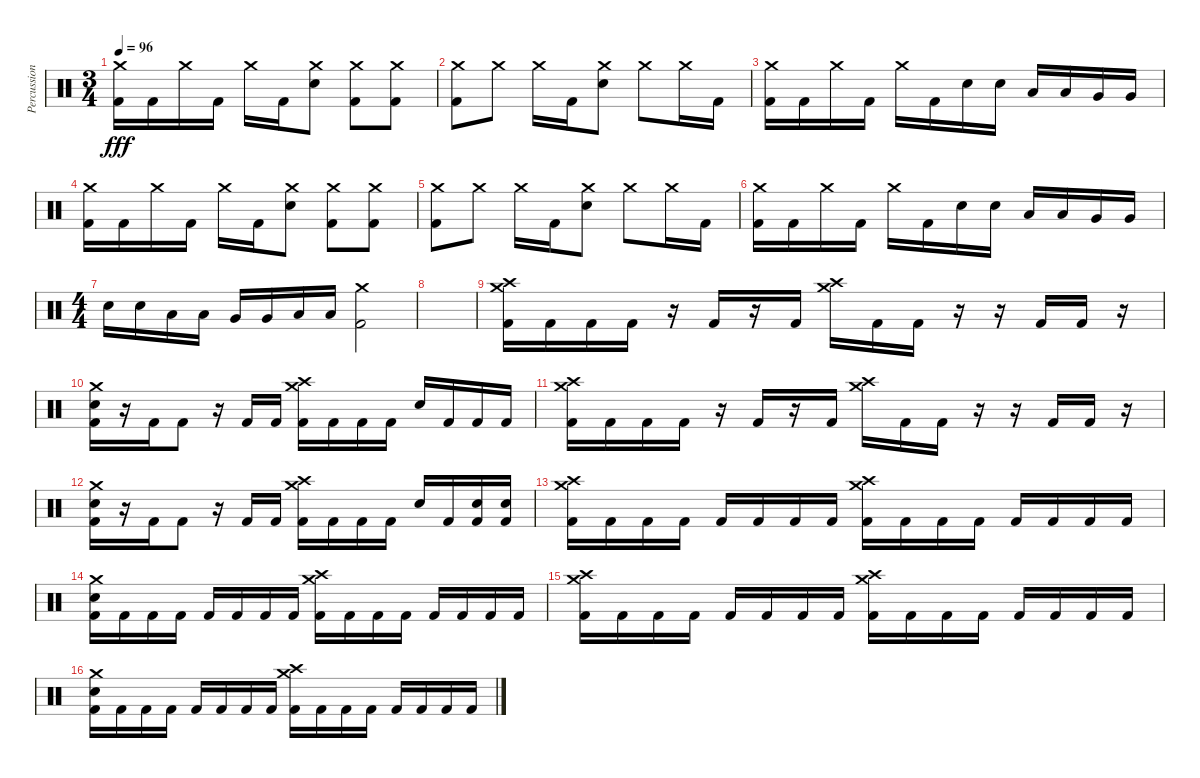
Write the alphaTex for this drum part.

\track ("Percussion" "Percussion") {instrument percussion}
\staff {score}
\articulation defaults
\ts (3 4)
\tempo 96
\clef neutral
\ks c
("Crash medium (hit)" "Kick (hit) 2").16{dy fff} "Kick (hit) 2".16 "Crash medium (hit)".16 "Kick (hit) 2".16 "Crash medium (hit)".16 "Kick (hit) 2".16 ("Crash medium (hit)" "Electric Snare (hit)").8 ("Crash medium (hit)" "Kick (hit) 2").8 ("Crash medium (hit)" "Kick (hit) 2").8 |
("Crash medium (hit)" "Kick (hit) 2").8 "Crash medium (hit)".8 "Crash medium (hit)".16 "Kick (hit) 2".16 ("Crash medium (hit)" "Electric Snare (hit)").8 "Crash medium (hit)".8 "Crash medium (hit)".16 "Kick (hit) 2".16 |
("Crash medium (hit)" "Kick (hit) 2").16 "Kick (hit) 2".16 "Crash medium (hit)".16 "Kick (hit) 2".16 "Crash medium (hit)".16 "Kick (hit) 2".16 "Electric Snare (hit)".16 "Electric Snare (hit)".16 "Low Tom (hit)".16 "Low Tom (hit)".16 "Very Low Tom (hit)".16 "Very Low Tom (hit)".16 |
("Crash medium (hit)" "Kick (hit) 2").16 "Kick (hit) 2".16 "Crash medium (hit)".16 "Kick (hit) 2".16 "Crash medium (hit)".16 "Kick (hit) 2".16 ("Crash medium (hit)" "Electric Snare (hit)").8 ("Crash medium (hit)" "Kick (hit) 2").8 ("Crash medium (hit)" "Kick (hit) 2").8 |
("Crash medium (hit)" "Kick (hit) 2").8 "Crash medium (hit)".8 "Crash medium (hit)".16 "Kick (hit) 2".16 ("Crash medium (hit)" "Electric Snare (hit)").8 "Crash medium (hit)".8 "Crash medium (hit)".16 "Kick (hit) 2".16 |
("Crash medium (hit)" "Kick (hit) 2").16 "Kick (hit) 2".16 "Crash medium (hit)".16 "Kick (hit) 2".16 "Crash medium (hit)".16 "Kick (hit) 2".16 "Electric Snare (hit)".16 "Electric Snare (hit)".16 "Low Tom (hit)".16 "Low Tom (hit)".16 "Very Low Tom (hit)".16 "Very Low Tom (hit)".16 |
\ts (4 4)
"Electric Snare (hit)".16 "Electric Snare (hit)".16 "Low Tom (hit)".16 "Low Tom (hit)".16 "Very Low Tom (hit)".16 "Very Low Tom (hit)".16 "Low Floor Tom (hit)".16 "Low Floor Tom (hit)".16 ("Crash medium (hit)" "Kick (hit) 2").2 |
|
("Crash high (hit)" "Crash medium (hit)" "Kick (hit) 2").16 "Kick (hit) 2".16 "Kick (hit) 2".16 "Kick (hit) 2".16 r.16 "Kick (hit) 2".16 r.16 "Kick (hit) 2".16 ("Crash high (hit)" "Crash medium (hit)").16 "Kick (hit) 2".16 "Kick (hit) 2".16 r.16 r.16 "Kick (hit) 2".16 "Kick (hit) 2".16 r.16 |
("Crash medium (hit)" "Electric Snare (hit)" "Kick (hit) 2").16 r.16 "Kick (hit) 2".16 "Kick (hit) 2".8 r.16 "Kick (hit) 2".16 "Kick (hit) 2".16 ("Crash high (hit)" "Crash medium (hit)" "Kick (hit) 2").16 "Kick (hit) 2".16 "Kick (hit) 2".16 "Kick (hit) 2".16 "Electric Snare (hit)".16 "Kick (hit) 2".16 "Kick (hit) 2".16 "Kick (hit) 2".16 |
("Crash high (hit)" "Crash medium (hit)" "Kick (hit) 2").16 "Kick (hit) 2".16 "Kick (hit) 2".16 "Kick (hit) 2".16 r.16 "Kick (hit) 2".16 r.16 "Kick (hit) 2".16 ("Crash high (hit)" "Crash medium (hit)").16 "Kick (hit) 2".16 "Kick (hit) 2".16 r.16 r.16 "Kick (hit) 2".16 "Kick (hit) 2".16 r.16 |
("Crash medium (hit)" "Electric Snare (hit)" "Kick (hit) 2").16 r.16 "Kick (hit) 2".16 "Kick (hit) 2".8 r.16 "Kick (hit) 2".16 "Kick (hit) 2".16 ("Crash high (hit)" "Crash medium (hit)" "Kick (hit) 2").16 "Kick (hit) 2".16 "Kick (hit) 2".16 "Kick (hit) 2".16 "Electric Snare (hit)".16 "Kick (hit) 2".16 ("Electric Snare (hit)" "Kick (hit) 2").16 ("Electric Snare (hit)" "Kick (hit) 2").16 |
("Crash high (hit)" "Crash medium (hit)" "Kick (hit) 2").16 "Kick (hit) 2".16 "Kick (hit) 2".16 "Kick (hit) 2".16 "Kick (hit) 2".16 "Kick (hit) 2".16 "Kick (hit) 2".16 "Kick (hit) 2".16 ("Crash high (hit)" "Crash medium (hit)" "Kick (hit) 2").16 "Kick (hit) 2".16 "Kick (hit) 2".16 "Kick (hit) 2".16 "Kick (hit) 2".16 "Kick (hit) 2".16 "Kick (hit) 2".16 "Kick (hit) 2".16 |
("Crash medium (hit)" "Electric Snare (hit)" "Kick (hit) 2").16 "Kick (hit) 2".16 "Kick (hit) 2".16 "Kick (hit) 2".16 "Kick (hit) 2".16 "Kick (hit) 2".16 "Kick (hit) 2".16 "Kick (hit) 2".16 ("Crash high (hit)" "Crash medium (hit)" "Kick (hit) 2").16 "Kick (hit) 2".16 "Kick (hit) 2".16 "Kick (hit) 2".16 "Kick (hit) 2".16 "Kick (hit) 2".16 "Kick (hit) 2".16 "Kick (hit) 2".16 |
("Crash high (hit)" "Crash medium (hit)" "Kick (hit) 2").16 "Kick (hit) 2".16 "Kick (hit) 2".16 "Kick (hit) 2".16 "Kick (hit) 2".16 "Kick (hit) 2".16 "Kick (hit) 2".16 "Kick (hit) 2".16 ("Crash high (hit)" "Crash medium (hit)" "Kick (hit) 2").16 "Kick (hit) 2".16 "Kick (hit) 2".16 "Kick (hit) 2".16 "Kick (hit) 2".16 "Kick (hit) 2".16 "Kick (hit) 2".16 "Kick (hit) 2".16 |
("Crash medium (hit)" "Electric Snare (hit)" "Kick (hit) 2").16 "Kick (hit) 2".16 "Kick (hit) 2".16 "Kick (hit) 2".16 "Kick (hit) 2".16 "Kick (hit) 2".16 "Kick (hit) 2".16 "Kick (hit) 2".16 ("Crash high (hit)" "Crash medium (hit)" "Kick (hit) 2").16 "Kick (hit) 2".16 "Kick (hit) 2".16 "Kick (hit) 2".16 "Kick (hit) 2".16 "Kick (hit) 2".16 "Kick (hit) 2".16 "Kick (hit) 2".16
